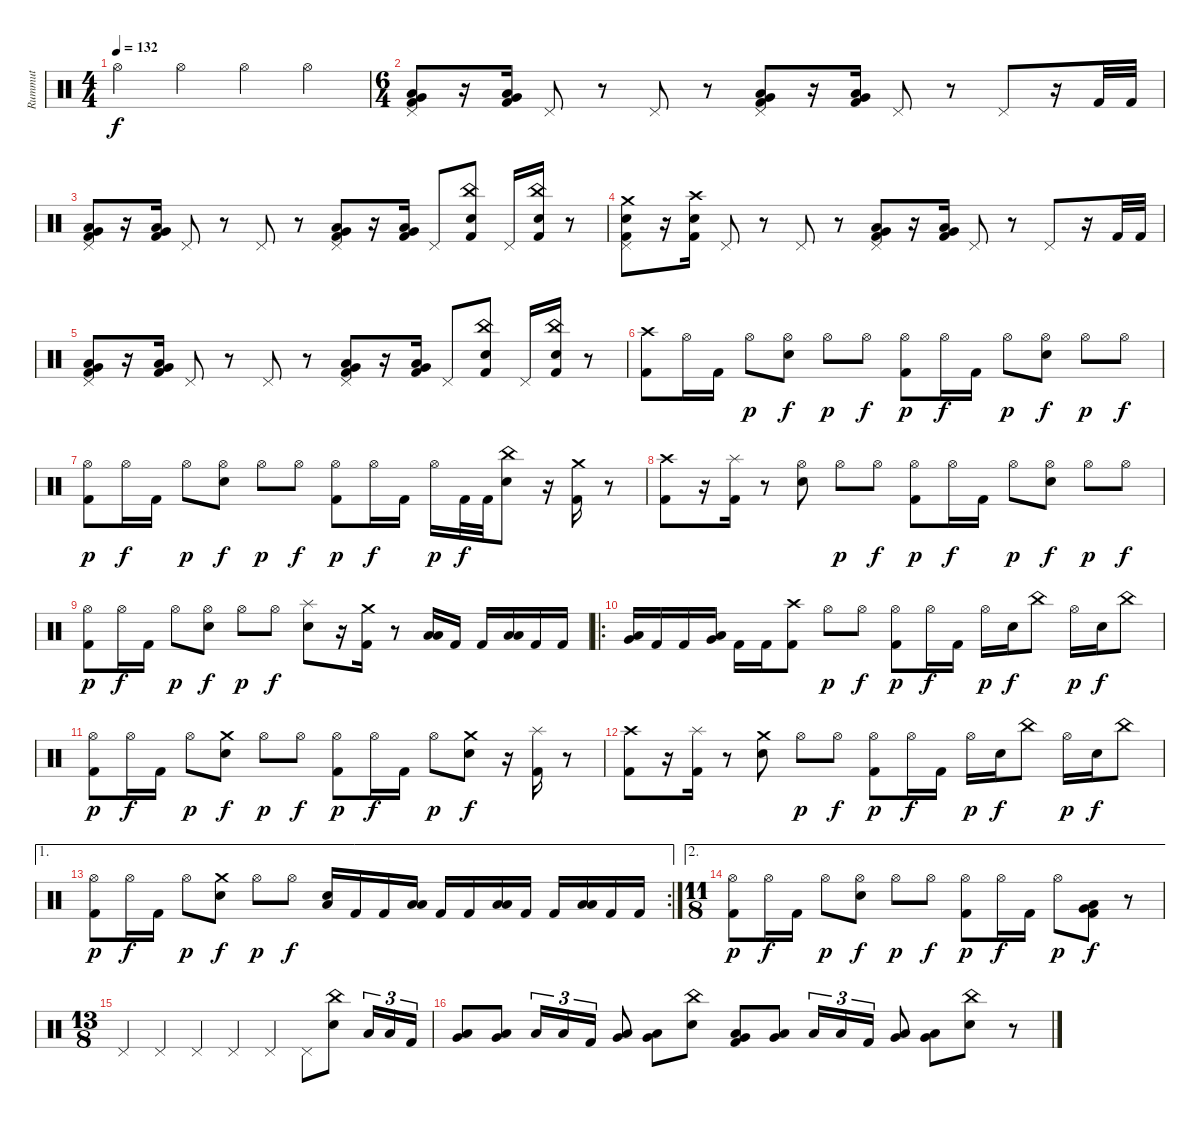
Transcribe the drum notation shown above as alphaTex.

\track ("Rummut" "Rummut") {instrument percussion}
\staff {score}
\articulation defaults
\ts (4 4)
\tempo 132
\clef neutral
\ks c "Hi-Hat (open)".4{dy f} "Hi-Hat (open)".4 "Hi-Hat (open)".4 "Hi-Hat (open)".4
|
\ts (6 4)
("Pedal Hi-Hat (hit)" "Very Low Tom (hit)" "Low Floor Tom (hit)" "Kick (hit) 2").8 r.16 ("Very Low Tom (hit)" "Low Floor Tom (hit)" "Kick (hit) 2").16 "Pedal Hi-Hat (hit)".8 r.8 "Pedal Hi-Hat (hit)".8 r.8 ("Pedal Hi-Hat (hit)" "Very Low Tom (hit)" "Low Floor Tom (hit)" "Kick (hit) 2").8 r.16 ("Very Low Tom (hit)" "Low Floor Tom (hit)" "Kick (hit) 2").16 "Pedal Hi-Hat (hit)".8 r.8 "Pedal Hi-Hat (hit)".8 r.16 "Kick (hit) 2".32 "Kick (hit) 2".32 |
("Pedal Hi-Hat (hit)" "Very Low Tom (hit)" "Low Floor Tom (hit)" "Kick (hit) 2").8 r.16 ("Very Low Tom (hit)" "Low Floor Tom (hit)" "Kick (hit) 2").16 "Pedal Hi-Hat (hit)".8 r.8 "Pedal Hi-Hat (hit)".8 r.8 ("Pedal Hi-Hat (hit)" "Very Low Tom (hit)" "Low Floor Tom (hit)" "Kick (hit) 2").8 r.16 ("Very Low Tom (hit)" "Low Floor Tom (hit)" "Kick (hit) 2").16 "Pedal Hi-Hat (hit)".8 ("China (hit)" "Electric Snare (hit)" "Kick (hit) 2").8 "Pedal Hi-Hat (hit)".16 ("China (hit)" "Electric Snare (hit)" "Kick (hit) 2").16 r.8 |
("Crash medium (hit)" "Pedal Hi-Hat (hit)" "Electric Snare (hit)" "Kick (hit) 2").8 r.16 ("Crash high (hit)" "Electric Snare (hit)" "Kick (hit) 2").16 "Pedal Hi-Hat (hit)".8 r.8 "Pedal Hi-Hat (hit)".8 r.8 ("Pedal Hi-Hat (hit)" "Very Low Tom (hit)" "Low Floor Tom (hit)" "Kick (hit) 2").8 r.16 ("Very Low Tom (hit)" "Low Floor Tom (hit)" "Kick (hit) 2").16 "Pedal Hi-Hat (hit)".8 r.8 "Pedal Hi-Hat (hit)".8 r.16 "Kick (hit) 2".32 "Kick (hit) 2".32 |
("Pedal Hi-Hat (hit)" "Very Low Tom (hit)" "Low Floor Tom (hit)" "Kick (hit) 2").8 r.16 ("Very Low Tom (hit)" "Low Floor Tom (hit)" "Kick (hit) 2").16 "Pedal Hi-Hat (hit)".8 r.8 "Pedal Hi-Hat (hit)".8 r.8 ("Pedal Hi-Hat (hit)" "Very Low Tom (hit)" "Low Floor Tom (hit)" "Kick (hit) 2").8 r.16 ("Very Low Tom (hit)" "Low Floor Tom (hit)" "Kick (hit) 2").16 "Pedal Hi-Hat (hit)".8 ("China (hit)" "Electric Snare (hit)" "Kick (hit) 2").8 "Pedal Hi-Hat (hit)".16 ("China (hit)" "Electric Snare (hit)" "Kick (hit) 2").16 r.8 |
("Crash high (hit)" "Kick (hit) 2").8 "Hi-Hat (open)".16 "Kick (hit) 2".16 "Hi-Hat (open)".8{dy p} ("Hi-Hat (open)" "Electric Snare (hit)").8{dy f} "Hi-Hat (open)".8{dy p} "Hi-Hat (open)".8{dy f} ("Hi-Hat (open)" "Kick (hit) 2").8{dy p} "Hi-Hat (open)".16{dy f} "Kick (hit) 2".16 "Hi-Hat (open)".8{dy p} ("Hi-Hat (open)" "Electric Snare (hit)").8{dy f} "Hi-Hat (open)".8{dy p} "Hi-Hat (open)".8{dy f} |
("Hi-Hat (open)" "Kick (hit) 2").8{dy p} "Hi-Hat (open)".16{dy f} "Kick (hit) 2".16 "Hi-Hat (open)".8{dy p} ("Hi-Hat (open)" "Electric Snare (hit)").8{dy f} "Hi-Hat (open)".8{dy p} "Hi-Hat (open)".8{dy f} ("Hi-Hat (open)" "Kick (hit) 2").8{dy p} "Hi-Hat (open)".16{dy f} "Kick (hit) 2".16 "Hi-Hat (open)".16{dy p} "Kick (hit) 2".32{dy f} "Kick (hit) 2".32 ("China (hit)" "Electric Snare (hit)").8 r.16 ("Crash medium (hit)" "Kick (hit) 2").16 r.8 |
("Crash high (hit)" "Kick (hit) 2").8 r.16 ("Splash (hit)" "Kick (hit) 2").16 r.8 ("Hi-Hat (open)" "Electric Snare (hit)").8 "Hi-Hat (open)".8{dy p} "Hi-Hat (open)".8{dy f} ("Hi-Hat (open)" "Kick (hit) 2").8{dy p} "Hi-Hat (open)".16{dy f} "Kick (hit) 2".16 "Hi-Hat (open)".8{dy p} ("Hi-Hat (open)" "Electric Snare (hit)").8{dy f} "Hi-Hat (open)".8{dy p} "Hi-Hat (open)".8{dy f} |
("Hi-Hat (open)" "Kick (hit) 2").8{dy p} "Hi-Hat (open)".16{dy f} "Kick (hit) 2".16 "Hi-Hat (open)".8{dy p} ("Hi-Hat (open)" "Electric Snare (hit)").8{dy f} "Hi-Hat (open)".8{dy p} "Hi-Hat (open)".8{dy f} ("Splash (hit)" "Electric Snare (hit)").8 r.16 ("Crash medium (hit)" "Kick (hit) 2").16 r.8 ("Low Tom (hit)" "Low Floor Tom (hit)").16 "Kick (hit) 2".16 "Kick (hit) 2".16 ("Low Tom (hit)" "Low Floor Tom (hit)").16 "Kick (hit) 2".16 "Kick (hit) 2".16 |
\ro
("Very Low Tom (hit)" "Low Floor Tom (hit)").16 "Kick (hit) 2".16 "Kick (hit) 2".16 ("Very Low Tom (hit)" "Low Floor Tom (hit)").16 "Kick (hit) 2".16 "Kick (hit) 2".16 ("Crash high (hit)" "Kick (hit) 2").8 "Hi-Hat (open)".8{dy p} "Hi-Hat (open)".8{dy f} ("Hi-Hat (open)" "Kick (hit) 2").8{dy p} "Hi-Hat (open)".16{dy f} "Kick (hit) 2".16 "Hi-Hat (open)".16{dy p} "Electric Snare (hit)".16{dy f} "China (hit)".8 "Hi-Hat (open)".16{dy p} "Electric Snare (hit)".16{dy f} "China (hit)".8 |
("Hi-Hat (open)" "Kick (hit) 2").8{dy p} "Hi-Hat (open)".16{dy f} "Kick (hit) 2".16 "Hi-Hat (open)".8{dy p} ("Crash medium (hit)" "Electric Snare (hit)").8{dy f} "Hi-Hat (open)".8{dy p} "Hi-Hat (open)".8{dy f} ("Hi-Hat (open)" "Kick (hit) 2").8{dy p} "Hi-Hat (open)".16{dy f} "Kick (hit) 2".16 "Hi-Hat (open)".8{dy p} ("Crash medium (hit)" "Electric Snare (hit)").8{dy f} r.16 ("Splash (hit)" "Kick (hit) 2").16 r.8 |
("Crash high (hit)" "Kick (hit) 2").8 r.16 ("Splash (hit)" "Kick (hit) 2").16 r.8 ("Crash medium (hit)" "Electric Snare (hit)").8 "Hi-Hat (open)".8{dy p} "Hi-Hat (open)".8{dy f} ("Hi-Hat (open)" "Kick (hit) 2").8{dy p} "Hi-Hat (open)".16{dy f} "Kick (hit) 2".16 "Hi-Hat (open)".16{dy p} "Electric Snare (hit)".16{dy f} "China (hit)".8 "Hi-Hat (open)".16{dy p} "Electric Snare (hit)".16{dy f} "China (hit)".8 |
\ae 1
\rc 2
("Hi-Hat (open)" "Kick (hit) 2").8{dy p} "Hi-Hat (open)".16{dy f} "Kick (hit) 2".16 "Hi-Hat (open)".8{dy p} ("Crash medium (hit)" "Electric Snare (hit)").8{dy f} "Hi-Hat (open)".8{dy p} "Hi-Hat (open)".8{dy f} ("Low Floor Tom (hit)" "Electric Snare (hit)").16 "Kick (hit) 2".16 "Kick (hit) 2".16 ("Low Tom (hit)" "Low Floor Tom (hit)").16 "Kick (hit) 2".16 "Kick (hit) 2".16 ("Low Tom (hit)" "Low Floor Tom (hit)").16 "Kick (hit) 2".16 "Kick (hit) 2".16 ("Low Tom (hit)" "Low Floor Tom (hit)").16 "Kick (hit) 2".16 "Kick (hit) 2".16 |
\ae 2
\ts (11 8)
("Hi-Hat (open)" "Kick (hit) 2").8{dy p} "Hi-Hat (open)".16{dy f} "Kick (hit) 2".16 "Hi-Hat (open)".8{dy p} ("Hi-Hat (open)" "Electric Snare (hit)").8{dy f} "Hi-Hat (open)".8{dy p} "Hi-Hat (open)".8{dy f} ("Hi-Hat (open)" "Kick (hit) 2").8{dy p} "Hi-Hat (open)".16{dy f} "Kick (hit) 2".16 "Hi-Hat (open)".8{dy p} ("Very Low Tom (hit)" "Low Floor Tom (hit)" "Kick (hit) 2").8{dy f} r.8 |
\ts (13 8)
"Pedal Hi-Hat (hit)".4 "Pedal Hi-Hat (hit)".4 "Pedal Hi-Hat (hit)".4 "Pedal Hi-Hat (hit)".4 "Pedal Hi-Hat (hit)".4 "Pedal Hi-Hat (hit)".8 ("China (hit)" "Electric Snare (hit)").8 "Low Tom (hit)".16{tu (3 2)} "Low Floor Tom (hit)".16{tu (3 2)} "Kick (hit) 2".16{tu (3 2)} |
("Very Low Tom (hit)" "Low Floor Tom (hit)").8 ("Very Low Tom (hit)" "Low Floor Tom (hit)").8 "Low Tom (hit)".16{tu (3 2)} "Low Floor Tom (hit)".16{tu (3 2)} "Kick (hit) 2".16{tu (3 2)} ("Very Low Tom (hit)" "Low Floor Tom (hit)").8 ("Very Low Tom (hit)" "Low Floor Tom (hit)").8 ("China (hit)" "Electric Snare (hit)").8 ("Very Low Tom (hit)" "Low Floor Tom (hit)" "Kick (hit) 2").8 ("Very Low Tom (hit)" "Low Floor Tom (hit)").8 "Low Tom (hit)".16{tu (3 2)} "Low Floor Tom (hit)".16{tu (3 2)} "Kick (hit) 2".16{tu (3 2)} ("Very Low Tom (hit)" "Low Floor Tom (hit)").8 ("Very Low Tom (hit)" "Low Floor Tom (hit)").8 ("China (hit)" "Electric Snare (hit)").8 r.8
